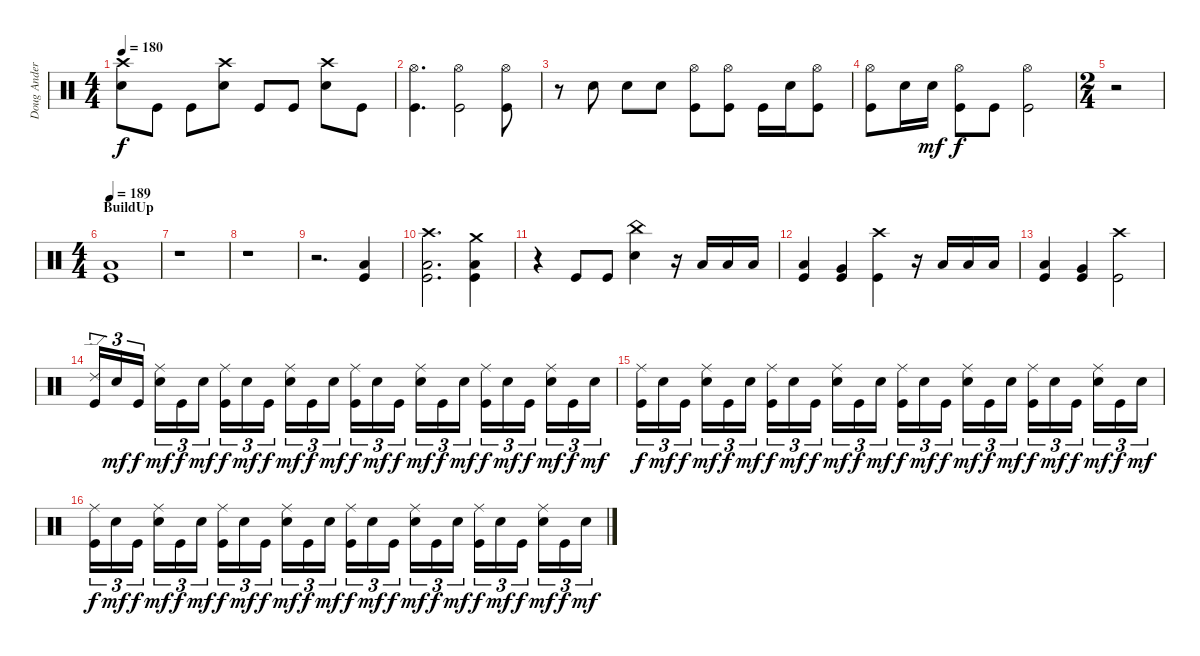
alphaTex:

\track ("Doug Anderson" "Doug Ander") {instrument percussion}
\staff {score}
\articulation defaults
\ts (4 4)
\tempo 180
\clef neutral
\ks c
("Snare (hit) 2" "Crash high (hit)").8{dy f} "Kick (hit)".8 "Kick (hit)".8 ("Snare (hit) 2" "Crash high (hit)").8 "Kick (hit)".8 "Kick (hit)".8 ("Snare (hit) 2" "Crash high (hit)").8 "Kick (hit)".8 |
("Kick (hit)" "Hi-Hat (open)").4{d} ("Kick (hit)" "Hi-Hat (open)").2 ("Kick (hit)" "Hi-Hat (open)").8 |
r.8 "Snare (hit) 2".8 "Snare (hit) 2".8 "Snare (hit) 2".8 ("Kick (hit)" "Hi-Hat (open)").8 ("Kick (hit)" "Hi-Hat (open)").8 "Kick (hit)".16 "Snare (hit) 2".16 ("Kick (hit)" "Hi-Hat (open)").8 |
("Kick (hit)" "Hi-Hat (open)").8 "Snare (hit) 2".16 "Snare (hit) 2".16{dy mf} ("Kick (hit)" "Hi-Hat (open)").8{dy f} "Kick (hit)".8 ("Kick (hit)" "Hi-Hat (open)").2 |
\ts (2 4)
r.2 |
\ts (4 4)
\section ("" "BuildUp")
\tempo 189
("Kick (hit)" "Low Floor Tom (hit)").1 |
r.1 |
r.1 |
r.2{d} ("Low Tom (hit)" "Kick (hit)").4 |
("Kick (hit)" "Low Floor Tom (hit)" "Crash high (hit)").2{d} ("Kick (hit)" "Low Tom (hit)" "Crash medium (hit)").4 |
r.4 "Kick (hit)".8 "Kick (hit)".8 ("China (hit)" "Snare (hit) 2").4 r.16 "Low Floor Tom (hit)".16 "Low Floor Tom (hit)".16 "Low Floor Tom (hit)".16 |
("Kick (hit)" "Low Floor Tom (hit)").4 ("Kick (hit)" "Very Low Tom (hit)").4 ("Kick (hit)" "Crash high (hit)").4 r.16 "Low Floor Tom (hit)".16 "Low Floor Tom (hit)".16 "Low Floor Tom (hit)".16 |
("Kick (hit)" "Low Floor Tom (hit)").4 ("Kick (hit)" "Very Low Tom (hit)").4 ("Kick (hit)" "Crash high (hit)").2 |
("Kick (hit)" "Ride (edge) 2").16{tu (3 2)} "Snare (hit) 2".16{tu (3 2) dy mf} "Kick (hit)".16{tu (3 2) dy f} ("Snare (hit) 2" "Ride (middle)").16{tu (3 2) dy mf} "Kick (hit)".16{tu (3 2) dy f} "Snare (hit) 2".16{tu (3 2) dy mf} ("Kick (hit)" "Ride (middle)").16{tu (3 2) dy f} "Snare (hit) 2".16{tu (3 2) dy mf} "Kick (hit)".16{tu (3 2) dy f} ("Snare (hit) 2" "Ride (middle)").16{tu (3 2) dy mf} "Kick (hit)".16{tu (3 2) dy f} "Snare (hit) 2".16{tu (3 2) dy mf} ("Kick (hit)" "Ride (middle)").16{tu (3 2) dy f} "Snare (hit) 2".16{tu (3 2) dy mf} "Kick (hit)".16{tu (3 2) dy f} ("Snare (hit) 2" "Ride (middle)").16{tu (3 2) dy mf} "Kick (hit)".16{tu (3 2) dy f} "Snare (hit) 2".16{tu (3 2) dy mf} ("Kick (hit)" "Ride (middle)").16{tu (3 2) dy f} "Snare (hit) 2".16{tu (3 2) dy mf} "Kick (hit)".16{tu (3 2) dy f} ("Snare (hit) 2" "Ride (middle)").16{tu (3 2) dy mf} "Kick (hit)".16{tu (3 2) dy f} "Snare (hit) 2".16{tu (3 2) dy mf} |
("Kick (hit)" "Ride (middle)").16{tu (3 2) dy f} "Snare (hit) 2".16{tu (3 2) dy mf} "Kick (hit)".16{tu (3 2) dy f} ("Snare (hit) 2" "Ride (middle)").16{tu (3 2) dy mf} "Kick (hit)".16{tu (3 2) dy f} "Snare (hit) 2".16{tu (3 2) dy mf} ("Kick (hit)" "Ride (middle)").16{tu (3 2) dy f} "Snare (hit) 2".16{tu (3 2) dy mf} "Kick (hit)".16{tu (3 2) dy f} ("Snare (hit) 2" "Ride (middle)").16{tu (3 2) dy mf} "Kick (hit)".16{tu (3 2) dy f} "Snare (hit) 2".16{tu (3 2) dy mf} ("Kick (hit)" "Ride (middle)").16{tu (3 2) dy f} "Snare (hit) 2".16{tu (3 2) dy mf} "Kick (hit)".16{tu (3 2) dy f} ("Snare (hit) 2" "Ride (middle)").16{tu (3 2) dy mf} "Kick (hit)".16{tu (3 2) dy f} "Snare (hit) 2".16{tu (3 2) dy mf} ("Kick (hit)" "Ride (middle)").16{tu (3 2) dy f} "Snare (hit) 2".16{tu (3 2) dy mf} "Kick (hit)".16{tu (3 2) dy f} ("Snare (hit) 2" "Ride (middle)").16{tu (3 2) dy mf} "Kick (hit)".16{tu (3 2) dy f} "Snare (hit) 2".16{tu (3 2) dy mf} |
("Kick (hit)" "Ride (middle)").16{tu (3 2) dy f} "Snare (hit) 2".16{tu (3 2) dy mf} "Kick (hit)".16{tu (3 2) dy f} ("Snare (hit) 2" "Ride (middle)").16{tu (3 2) dy mf} "Kick (hit)".16{tu (3 2) dy f} "Snare (hit) 2".16{tu (3 2) dy mf} ("Kick (hit)" "Ride (middle)").16{tu (3 2) dy f} "Snare (hit) 2".16{tu (3 2) dy mf} "Kick (hit)".16{tu (3 2) dy f} ("Snare (hit) 2" "Ride (middle)").16{tu (3 2) dy mf} "Kick (hit)".16{tu (3 2) dy f} "Snare (hit) 2".16{tu (3 2) dy mf} ("Kick (hit)" "Ride (middle)").16{tu (3 2) dy f} "Snare (hit) 2".16{tu (3 2) dy mf} "Kick (hit)".16{tu (3 2) dy f} ("Snare (hit) 2" "Ride (middle)").16{tu (3 2) dy mf} "Kick (hit)".16{tu (3 2) dy f} "Snare (hit) 2".16{tu (3 2) dy mf} ("Kick (hit)" "Ride (middle)").16{tu (3 2) dy f} "Snare (hit) 2".16{tu (3 2) dy mf} "Kick (hit)".16{tu (3 2) dy f} ("Snare (hit) 2" "Ride (middle)").16{tu (3 2) dy mf} "Kick (hit)".16{tu (3 2) dy f} "Snare (hit) 2".16{tu (3 2) dy mf}
